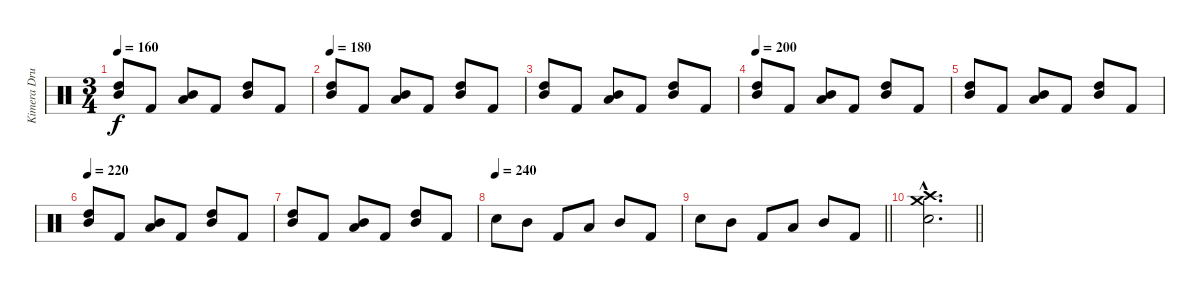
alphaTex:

\track ("Kimera Drummer" "Kimera Dru") {instrument percussion}
\staff {score}
\articulation defaults
\ts (3 4)
\tempo 160
\clef neutral
\ks c
("High Tom (hit)" "Mid Tom (hit)").8{dy f} "Kick (hit) 2".8 ("Mid Tom (hit)" "Low Floor Tom (hit)").8 "Kick (hit) 2".8 ("High Tom (hit)" "Mid Tom (hit)").8 "Kick (hit) 2".8 |
\tempo 180
("High Tom (hit)" "Mid Tom (hit)").8 "Kick (hit) 2".8 ("Mid Tom (hit)" "Low Floor Tom (hit)").8 "Kick (hit) 2".8 ("High Tom (hit)" "Mid Tom (hit)").8 "Kick (hit) 2".8 |
("High Tom (hit)" "Mid Tom (hit)").8 "Kick (hit) 2".8 ("Mid Tom (hit)" "Low Floor Tom (hit)").8 "Kick (hit) 2".8 ("High Tom (hit)" "Mid Tom (hit)").8 "Kick (hit) 2".8 |
\tempo 200
("High Tom (hit)" "Mid Tom (hit)").8 "Kick (hit) 2".8 ("Mid Tom (hit)" "Low Floor Tom (hit)").8 "Kick (hit) 2".8 ("High Tom (hit)" "Mid Tom (hit)").8 "Kick (hit) 2".8 |
("High Tom (hit)" "Mid Tom (hit)").8 "Kick (hit) 2".8 ("Mid Tom (hit)" "Low Floor Tom (hit)").8 "Kick (hit) 2".8 ("High Tom (hit)" "Mid Tom (hit)").8 "Kick (hit) 2".8 |
\tempo 220
("High Tom (hit)" "Mid Tom (hit)").8 "Kick (hit) 2".8 ("Mid Tom (hit)" "Low Floor Tom (hit)").8 "Kick (hit) 2".8 ("High Tom (hit)" "Mid Tom (hit)").8 "Kick (hit) 2".8 |
("High Tom (hit)" "Mid Tom (hit)").8 "Kick (hit) 2".8 ("Mid Tom (hit)" "Low Floor Tom (hit)").8 "Kick (hit) 2".8 ("High Tom (hit)" "Mid Tom (hit)").8 "Kick (hit) 2".8 |
\tempo (240)
"Electric Snare (hit)".8 "Mid Tom (hit)".8 "Kick (hit) 2".8 "Low Tom (hit)".8 "Mid Tom (hit)".8 "Kick (hit) 2".8 |
\barLineRight lightlight "Electric Snare (hit)".8 "Mid Tom (hit)".8 "Kick (hit) 2".8 "Low Tom (hit)".8 "Mid Tom (hit)".8 "Kick (hit) 2".8
|
\barLineRight lightlight
("Crash medium (hit)"{hac} "Crash high (hit)"{hac} "Electric Snare (hit)"{hac}).2{d}
